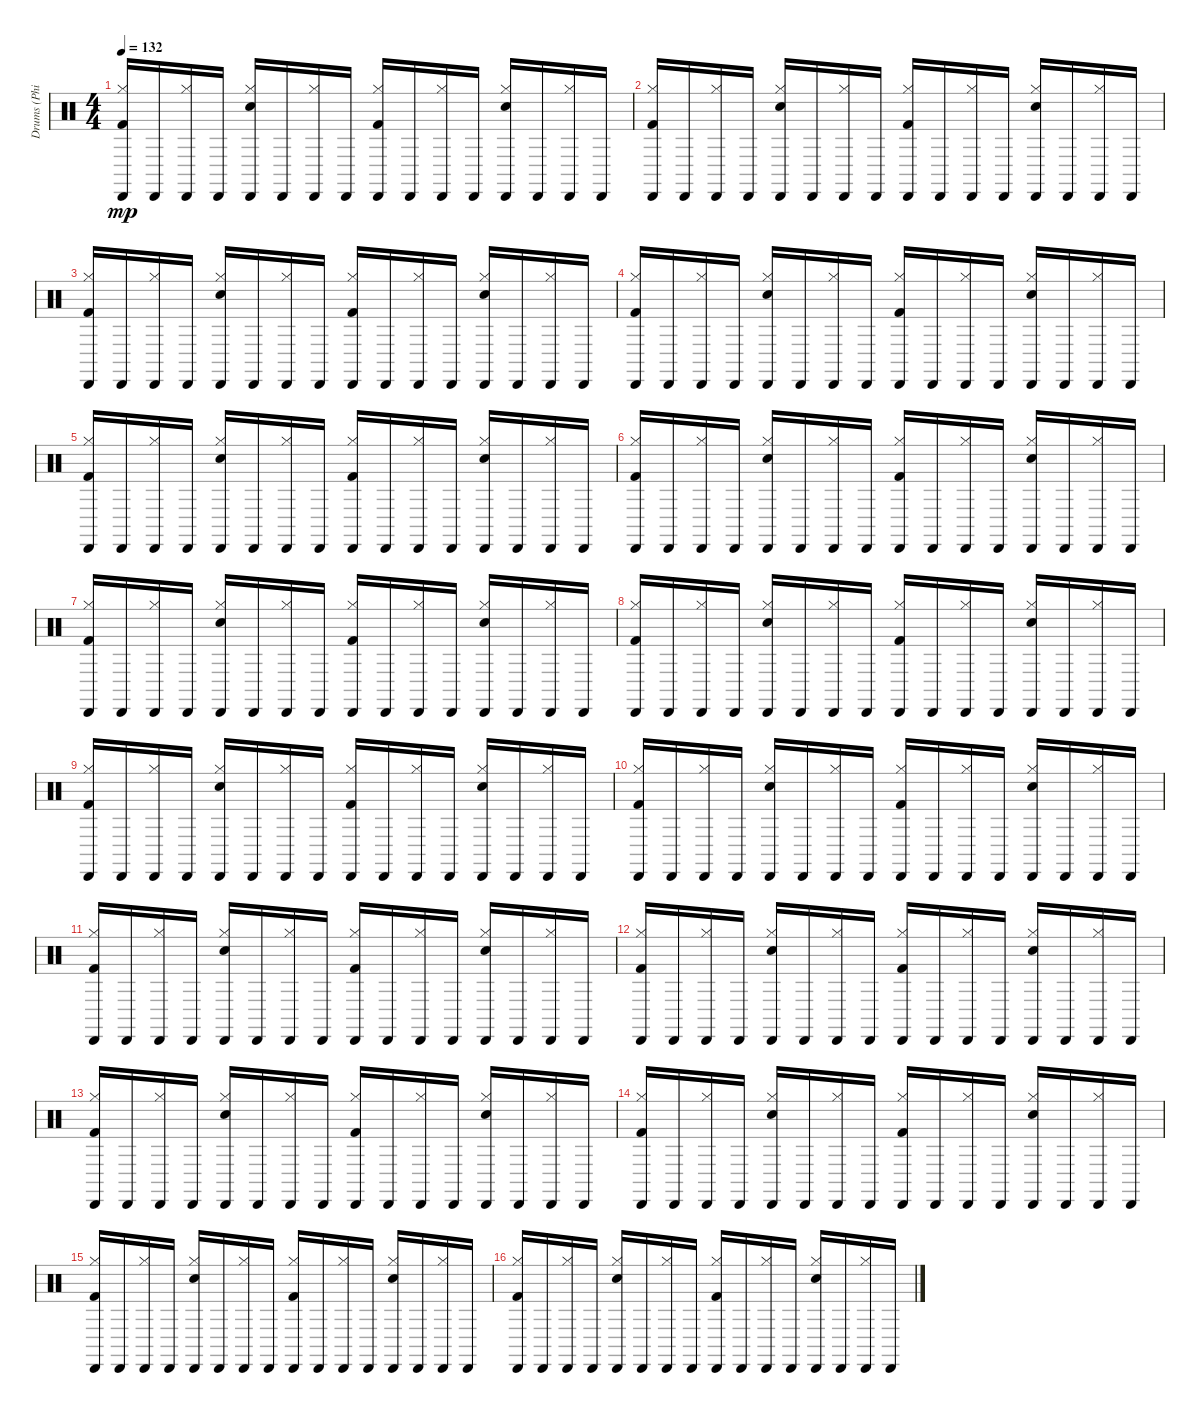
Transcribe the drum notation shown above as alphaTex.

\track ("Drums (Phil Rudd)" "Drums (Phi") {instrument percussion}
\staff {score}
\articulation defaults
\ts (4 4)
\tempo 132
\clef neutral
\ks c
("Hi-Hat (closed)" "Cabasa (hit)" "Kick (hit) 2").16{dy mp} "Cabasa (hit)".16 ("Hi-Hat (closed)" "Cabasa (hit)").16 "Cabasa (hit)".16 ("Hi-Hat (closed)" "Cabasa (hit)" "Snare (hit) 2").16 "Cabasa (hit)".16 ("Hi-Hat (closed)" "Cabasa (hit)").16 "Cabasa (hit)".16 ("Hi-Hat (closed)" "Cabasa (hit)" "Kick (hit) 2").16 "Cabasa (hit)".16 ("Hi-Hat (closed)" "Cabasa (hit)").16 "Cabasa (hit)".16 ("Hi-Hat (closed)" "Cabasa (hit)" "Snare (hit) 2").16 "Cabasa (hit)".16 ("Hi-Hat (closed)" "Cabasa (hit)").16 "Cabasa (hit)".16 |
("Hi-Hat (closed)" "Cabasa (hit)" "Kick (hit) 2").16 "Cabasa (hit)".16 ("Hi-Hat (closed)" "Cabasa (hit)").16 "Cabasa (hit)".16 ("Hi-Hat (closed)" "Cabasa (hit)" "Snare (hit) 2").16 "Cabasa (hit)".16 ("Hi-Hat (closed)" "Cabasa (hit)").16 "Cabasa (hit)".16 ("Hi-Hat (closed)" "Cabasa (hit)" "Kick (hit) 2").16 "Cabasa (hit)".16 ("Hi-Hat (closed)" "Cabasa (hit)").16 "Cabasa (hit)".16 ("Hi-Hat (closed)" "Cabasa (hit)" "Snare (hit) 2").16 "Cabasa (hit)".16 ("Hi-Hat (closed)" "Cabasa (hit)").16 "Cabasa (hit)".16 |
("Hi-Hat (closed)" "Cabasa (hit)" "Kick (hit) 2").16 "Cabasa (hit)".16 ("Hi-Hat (closed)" "Cabasa (hit)").16 "Cabasa (hit)".16 ("Hi-Hat (closed)" "Cabasa (hit)" "Snare (hit) 2").16 "Cabasa (hit)".16 ("Hi-Hat (closed)" "Cabasa (hit)").16 "Cabasa (hit)".16 ("Hi-Hat (closed)" "Cabasa (hit)" "Kick (hit) 2").16 "Cabasa (hit)".16 ("Hi-Hat (closed)" "Cabasa (hit)").16 "Cabasa (hit)".16 ("Hi-Hat (closed)" "Cabasa (hit)" "Snare (hit) 2").16 "Cabasa (hit)".16 ("Hi-Hat (closed)" "Cabasa (hit)").16 "Cabasa (hit)".16 |
("Hi-Hat (closed)" "Cabasa (hit)" "Kick (hit) 2").16 "Cabasa (hit)".16 ("Hi-Hat (closed)" "Cabasa (hit)").16 "Cabasa (hit)".16 ("Hi-Hat (closed)" "Cabasa (hit)" "Snare (hit) 2").16 "Cabasa (hit)".16 ("Hi-Hat (closed)" "Cabasa (hit)").16 "Cabasa (hit)".16 ("Hi-Hat (closed)" "Cabasa (hit)" "Kick (hit) 2").16 "Cabasa (hit)".16 ("Hi-Hat (closed)" "Cabasa (hit)").16 "Cabasa (hit)".16 ("Hi-Hat (closed)" "Cabasa (hit)" "Snare (hit) 2").16 "Cabasa (hit)".16 ("Hi-Hat (closed)" "Cabasa (hit)").16 "Cabasa (hit)".16 |
("Hi-Hat (closed)" "Cabasa (hit)" "Kick (hit) 2").16 "Cabasa (hit)".16 ("Hi-Hat (closed)" "Cabasa (hit)").16 "Cabasa (hit)".16 ("Hi-Hat (closed)" "Cabasa (hit)" "Snare (hit) 2").16 "Cabasa (hit)".16 ("Hi-Hat (closed)" "Cabasa (hit)").16 "Cabasa (hit)".16 ("Hi-Hat (closed)" "Cabasa (hit)" "Kick (hit) 2").16 "Cabasa (hit)".16 ("Hi-Hat (closed)" "Cabasa (hit)").16 "Cabasa (hit)".16 ("Hi-Hat (closed)" "Cabasa (hit)" "Snare (hit) 2").16 "Cabasa (hit)".16 ("Hi-Hat (closed)" "Cabasa (hit)").16 "Cabasa (hit)".16 |
("Hi-Hat (closed)" "Cabasa (hit)" "Kick (hit) 2").16 "Cabasa (hit)".16 ("Hi-Hat (closed)" "Cabasa (hit)").16 "Cabasa (hit)".16 ("Hi-Hat (closed)" "Cabasa (hit)" "Snare (hit) 2").16 "Cabasa (hit)".16 ("Hi-Hat (closed)" "Cabasa (hit)").16 "Cabasa (hit)".16 ("Hi-Hat (closed)" "Cabasa (hit)" "Kick (hit) 2").16 "Cabasa (hit)".16 ("Hi-Hat (closed)" "Cabasa (hit)").16 "Cabasa (hit)".16 ("Hi-Hat (closed)" "Cabasa (hit)" "Snare (hit) 2").16 "Cabasa (hit)".16 ("Hi-Hat (closed)" "Cabasa (hit)").16 "Cabasa (hit)".16 |
("Hi-Hat (closed)" "Cabasa (hit)" "Kick (hit) 2").16 "Cabasa (hit)".16 ("Hi-Hat (closed)" "Cabasa (hit)").16 "Cabasa (hit)".16 ("Hi-Hat (closed)" "Cabasa (hit)" "Snare (hit) 2").16 "Cabasa (hit)".16 ("Hi-Hat (closed)" "Cabasa (hit)").16 "Cabasa (hit)".16 ("Hi-Hat (closed)" "Cabasa (hit)" "Kick (hit) 2").16 "Cabasa (hit)".16 ("Hi-Hat (closed)" "Cabasa (hit)").16 "Cabasa (hit)".16 ("Hi-Hat (closed)" "Cabasa (hit)" "Snare (hit) 2").16 "Cabasa (hit)".16 ("Hi-Hat (closed)" "Cabasa (hit)").16 "Cabasa (hit)".16 |
("Hi-Hat (closed)" "Cabasa (hit)" "Kick (hit) 2").16 "Cabasa (hit)".16 ("Hi-Hat (closed)" "Cabasa (hit)").16 "Cabasa (hit)".16 ("Hi-Hat (closed)" "Cabasa (hit)" "Snare (hit) 2").16 "Cabasa (hit)".16 ("Hi-Hat (closed)" "Cabasa (hit)").16 "Cabasa (hit)".16 ("Hi-Hat (closed)" "Cabasa (hit)" "Kick (hit) 2").16 "Cabasa (hit)".16 ("Hi-Hat (closed)" "Cabasa (hit)").16 "Cabasa (hit)".16 ("Hi-Hat (closed)" "Cabasa (hit)" "Snare (hit) 2").16 "Cabasa (hit)".16 ("Hi-Hat (closed)" "Cabasa (hit)").16 "Cabasa (hit)".16 |
("Hi-Hat (closed)" "Cabasa (hit)" "Kick (hit) 2").16 "Cabasa (hit)".16 ("Hi-Hat (closed)" "Cabasa (hit)").16 "Cabasa (hit)".16 ("Hi-Hat (closed)" "Cabasa (hit)" "Snare (hit) 2").16 "Cabasa (hit)".16 ("Hi-Hat (closed)" "Cabasa (hit)").16 "Cabasa (hit)".16 ("Hi-Hat (closed)" "Cabasa (hit)" "Kick (hit) 2").16 "Cabasa (hit)".16 ("Hi-Hat (closed)" "Cabasa (hit)").16 "Cabasa (hit)".16 ("Hi-Hat (closed)" "Cabasa (hit)" "Snare (hit) 2").16 "Cabasa (hit)".16 ("Hi-Hat (closed)" "Cabasa (hit)").16 "Cabasa (hit)".16 |
("Hi-Hat (closed)" "Cabasa (hit)" "Kick (hit) 2").16 "Cabasa (hit)".16 ("Hi-Hat (closed)" "Cabasa (hit)").16 "Cabasa (hit)".16 ("Hi-Hat (closed)" "Cabasa (hit)" "Snare (hit) 2").16 "Cabasa (hit)".16 ("Hi-Hat (closed)" "Cabasa (hit)").16 "Cabasa (hit)".16 ("Hi-Hat (closed)" "Cabasa (hit)" "Kick (hit) 2").16 "Cabasa (hit)".16 ("Hi-Hat (closed)" "Cabasa (hit)").16 "Cabasa (hit)".16 ("Hi-Hat (closed)" "Cabasa (hit)" "Snare (hit) 2").16 "Cabasa (hit)".16 ("Hi-Hat (closed)" "Cabasa (hit)").16 "Cabasa (hit)".16 |
("Hi-Hat (closed)" "Cabasa (hit)" "Kick (hit) 2").16 "Cabasa (hit)".16 ("Hi-Hat (closed)" "Cabasa (hit)").16 "Cabasa (hit)".16 ("Hi-Hat (closed)" "Cabasa (hit)" "Snare (hit) 2").16 "Cabasa (hit)".16 ("Hi-Hat (closed)" "Cabasa (hit)").16 "Cabasa (hit)".16 ("Hi-Hat (closed)" "Cabasa (hit)" "Kick (hit) 2").16 "Cabasa (hit)".16 ("Hi-Hat (closed)" "Cabasa (hit)").16 "Cabasa (hit)".16 ("Hi-Hat (closed)" "Cabasa (hit)" "Snare (hit) 2").16 "Cabasa (hit)".16 ("Hi-Hat (closed)" "Cabasa (hit)").16 "Cabasa (hit)".16 |
("Hi-Hat (closed)" "Cabasa (hit)" "Kick (hit) 2").16 "Cabasa (hit)".16 ("Hi-Hat (closed)" "Cabasa (hit)").16 "Cabasa (hit)".16 ("Hi-Hat (closed)" "Cabasa (hit)" "Snare (hit) 2").16 "Cabasa (hit)".16 ("Hi-Hat (closed)" "Cabasa (hit)").16 "Cabasa (hit)".16 ("Hi-Hat (closed)" "Cabasa (hit)" "Kick (hit) 2").16 "Cabasa (hit)".16 ("Hi-Hat (closed)" "Cabasa (hit)").16 "Cabasa (hit)".16 ("Hi-Hat (closed)" "Cabasa (hit)" "Snare (hit) 2").16 "Cabasa (hit)".16 ("Hi-Hat (closed)" "Cabasa (hit)").16 "Cabasa (hit)".16 |
("Hi-Hat (closed)" "Cabasa (hit)" "Kick (hit) 2").16 "Cabasa (hit)".16 ("Hi-Hat (closed)" "Cabasa (hit)").16 "Cabasa (hit)".16 ("Hi-Hat (closed)" "Cabasa (hit)" "Snare (hit) 2").16 "Cabasa (hit)".16 ("Hi-Hat (closed)" "Cabasa (hit)").16 "Cabasa (hit)".16 ("Hi-Hat (closed)" "Cabasa (hit)" "Kick (hit) 2").16 "Cabasa (hit)".16 ("Hi-Hat (closed)" "Cabasa (hit)").16 "Cabasa (hit)".16 ("Hi-Hat (closed)" "Cabasa (hit)" "Snare (hit) 2").16 "Cabasa (hit)".16 ("Hi-Hat (closed)" "Cabasa (hit)").16 "Cabasa (hit)".16 |
("Hi-Hat (closed)" "Cabasa (hit)" "Kick (hit) 2").16 "Cabasa (hit)".16 ("Hi-Hat (closed)" "Cabasa (hit)").16 "Cabasa (hit)".16 ("Hi-Hat (closed)" "Cabasa (hit)" "Snare (hit) 2").16 "Cabasa (hit)".16 ("Hi-Hat (closed)" "Cabasa (hit)").16 "Cabasa (hit)".16 ("Hi-Hat (closed)" "Cabasa (hit)" "Kick (hit) 2").16 "Cabasa (hit)".16 ("Hi-Hat (closed)" "Cabasa (hit)").16 "Cabasa (hit)".16 ("Hi-Hat (closed)" "Cabasa (hit)" "Snare (hit) 2").16 "Cabasa (hit)".16 ("Hi-Hat (closed)" "Cabasa (hit)").16 "Cabasa (hit)".16 |
("Hi-Hat (closed)" "Cabasa (hit)" "Kick (hit) 2").16 "Cabasa (hit)".16 ("Hi-Hat (closed)" "Cabasa (hit)").16 "Cabasa (hit)".16 ("Hi-Hat (closed)" "Cabasa (hit)" "Snare (hit) 2").16 "Cabasa (hit)".16 ("Hi-Hat (closed)" "Cabasa (hit)").16 "Cabasa (hit)".16 ("Hi-Hat (closed)" "Cabasa (hit)" "Kick (hit) 2").16 "Cabasa (hit)".16 ("Hi-Hat (closed)" "Cabasa (hit)").16 "Cabasa (hit)".16 ("Hi-Hat (closed)" "Cabasa (hit)" "Snare (hit) 2").16 "Cabasa (hit)".16 ("Hi-Hat (closed)" "Cabasa (hit)").16 "Cabasa (hit)".16 |
("Hi-Hat (closed)" "Cabasa (hit)" "Kick (hit) 2").16 "Cabasa (hit)".16 ("Hi-Hat (closed)" "Cabasa (hit)").16 "Cabasa (hit)".16 ("Hi-Hat (closed)" "Cabasa (hit)" "Snare (hit) 2").16 "Cabasa (hit)".16 ("Hi-Hat (closed)" "Cabasa (hit)").16 "Cabasa (hit)".16 ("Hi-Hat (closed)" "Cabasa (hit)" "Kick (hit) 2").16 "Cabasa (hit)".16 ("Hi-Hat (closed)" "Cabasa (hit)").16 "Cabasa (hit)".16 ("Hi-Hat (closed)" "Cabasa (hit)" "Snare (hit) 2").16 "Cabasa (hit)".16 ("Hi-Hat (closed)" "Cabasa (hit)").16 "Cabasa (hit)".16
